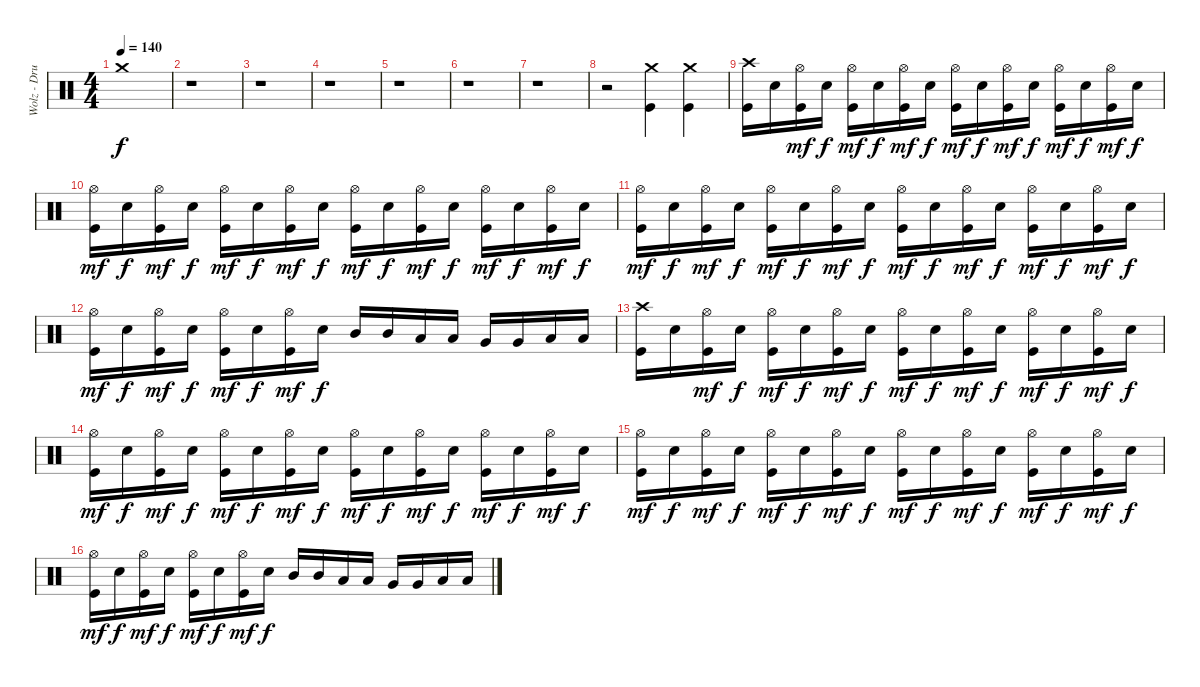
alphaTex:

\track ("Wolz - Drums" "Wolz - Dru") {instrument percussion}
\staff {score}
\articulation defaults
\ts (4 4)
\tempo 140
\clef neutral
\ks c "Crash medium (hit)".1{dy f}
|
r.1 |
r.1 |
r.1 |
r.1 |
r.1 |
r.1 |
r.2 ("Crash medium (hit)" "Kick (hit)").4 ("Crash medium (hit)" "Kick (hit)").4 |
("Crash high (hit)" "Kick (hit)").16 "Electric Snare (hit)".16 ("Hi-Hat (open)" "Kick (hit)").16{dy mf} "Electric Snare (hit)".16{dy f} ("Hi-Hat (open)" "Kick (hit)").16{dy mf} "Electric Snare (hit)".16{dy f} ("Hi-Hat (open)" "Kick (hit)").16{dy mf} "Electric Snare (hit)".16{dy f} ("Hi-Hat (open)" "Kick (hit)").16{dy mf} "Electric Snare (hit)".16{dy f} ("Hi-Hat (open)" "Kick (hit)").16{dy mf} "Electric Snare (hit)".16{dy f} ("Hi-Hat (open)" "Kick (hit)").16{dy mf} "Electric Snare (hit)".16{dy f} ("Hi-Hat (open)" "Kick (hit)").16{dy mf} "Electric Snare (hit)".16{dy f} |
("Hi-Hat (open)" "Kick (hit)").16{dy mf} "Electric Snare (hit)".16{dy f} ("Hi-Hat (open)" "Kick (hit)").16{dy mf} "Electric Snare (hit)".16{dy f} ("Hi-Hat (open)" "Kick (hit)").16{dy mf} "Electric Snare (hit)".16{dy f} ("Hi-Hat (open)" "Kick (hit)").16{dy mf} "Electric Snare (hit)".16{dy f} ("Hi-Hat (open)" "Kick (hit)").16{dy mf} "Electric Snare (hit)".16{dy f} ("Hi-Hat (open)" "Kick (hit)").16{dy mf} "Electric Snare (hit)".16{dy f} ("Hi-Hat (open)" "Kick (hit)").16{dy mf} "Electric Snare (hit)".16{dy f} ("Hi-Hat (open)" "Kick (hit)").16{dy mf} "Electric Snare (hit)".16{dy f} |
("Hi-Hat (open)" "Kick (hit)").16{dy mf} "Electric Snare (hit)".16{dy f} ("Hi-Hat (open)" "Kick (hit)").16{dy mf} "Electric Snare (hit)".16{dy f} ("Hi-Hat (open)" "Kick (hit)").16{dy mf} "Electric Snare (hit)".16{dy f} ("Hi-Hat (open)" "Kick (hit)").16{dy mf} "Electric Snare (hit)".16{dy f} ("Hi-Hat (open)" "Kick (hit)").16{dy mf} "Electric Snare (hit)".16{dy f} ("Hi-Hat (open)" "Kick (hit)").16{dy mf} "Electric Snare (hit)".16{dy f} ("Hi-Hat (open)" "Kick (hit)").16{dy mf} "Electric Snare (hit)".16{dy f} ("Hi-Hat (open)" "Kick (hit)").16{dy mf} "Electric Snare (hit)".16{dy f} |
("Hi-Hat (open)" "Kick (hit)").16{dy mf} "Electric Snare (hit)".16{dy f} ("Hi-Hat (open)" "Kick (hit)").16{dy mf} "Electric Snare (hit)".16{dy f} ("Hi-Hat (open)" "Kick (hit)").16{dy mf} "Electric Snare (hit)".16{dy f} ("Hi-Hat (open)" "Kick (hit)").16{dy mf} "Electric Snare (hit)".16{dy f} "Mid Tom (hit)".16 "Mid Tom (hit)".16 "Low Tom (hit)".16 "Low Tom (hit)".16 "Very Low Tom (hit)".16 "Very Low Tom (hit)".16 "Low Floor Tom (hit)".16 "Low Floor Tom (hit)".16 |
("Crash high (hit)" "Kick (hit)").16 "Electric Snare (hit)".16 ("Hi-Hat (open)" "Kick (hit)").16{dy mf} "Electric Snare (hit)".16{dy f} ("Hi-Hat (open)" "Kick (hit)").16{dy mf} "Electric Snare (hit)".16{dy f} ("Hi-Hat (open)" "Kick (hit)").16{dy mf} "Electric Snare (hit)".16{dy f} ("Hi-Hat (open)" "Kick (hit)").16{dy mf} "Electric Snare (hit)".16{dy f} ("Hi-Hat (open)" "Kick (hit)").16{dy mf} "Electric Snare (hit)".16{dy f} ("Hi-Hat (open)" "Kick (hit)").16{dy mf} "Electric Snare (hit)".16{dy f} ("Hi-Hat (open)" "Kick (hit)").16{dy mf} "Electric Snare (hit)".16{dy f} |
("Hi-Hat (open)" "Kick (hit)").16{dy mf} "Electric Snare (hit)".16{dy f} ("Hi-Hat (open)" "Kick (hit)").16{dy mf} "Electric Snare (hit)".16{dy f} ("Hi-Hat (open)" "Kick (hit)").16{dy mf} "Electric Snare (hit)".16{dy f} ("Hi-Hat (open)" "Kick (hit)").16{dy mf} "Electric Snare (hit)".16{dy f} ("Hi-Hat (open)" "Kick (hit)").16{dy mf} "Electric Snare (hit)".16{dy f} ("Hi-Hat (open)" "Kick (hit)").16{dy mf} "Electric Snare (hit)".16{dy f} ("Hi-Hat (open)" "Kick (hit)").16{dy mf} "Electric Snare (hit)".16{dy f} ("Hi-Hat (open)" "Kick (hit)").16{dy mf} "Electric Snare (hit)".16{dy f} |
("Hi-Hat (open)" "Kick (hit)").16{dy mf} "Electric Snare (hit)".16{dy f} ("Hi-Hat (open)" "Kick (hit)").16{dy mf} "Electric Snare (hit)".16{dy f} ("Hi-Hat (open)" "Kick (hit)").16{dy mf} "Electric Snare (hit)".16{dy f} ("Hi-Hat (open)" "Kick (hit)").16{dy mf} "Electric Snare (hit)".16{dy f} ("Hi-Hat (open)" "Kick (hit)").16{dy mf} "Electric Snare (hit)".16{dy f} ("Hi-Hat (open)" "Kick (hit)").16{dy mf} "Electric Snare (hit)".16{dy f} ("Hi-Hat (open)" "Kick (hit)").16{dy mf} "Electric Snare (hit)".16{dy f} ("Hi-Hat (open)" "Kick (hit)").16{dy mf} "Electric Snare (hit)".16{dy f} |
("Hi-Hat (open)" "Kick (hit)").16{dy mf} "Electric Snare (hit)".16{dy f} ("Hi-Hat (open)" "Kick (hit)").16{dy mf} "Electric Snare (hit)".16{dy f} ("Hi-Hat (open)" "Kick (hit)").16{dy mf} "Electric Snare (hit)".16{dy f} ("Hi-Hat (open)" "Kick (hit)").16{dy mf} "Electric Snare (hit)".16{dy f} "Mid Tom (hit)".16 "Mid Tom (hit)".16 "Low Tom (hit)".16 "Low Tom (hit)".16 "Very Low Tom (hit)".16 "Very Low Tom (hit)".16 "Low Floor Tom (hit)".16 "Low Floor Tom (hit)".16
